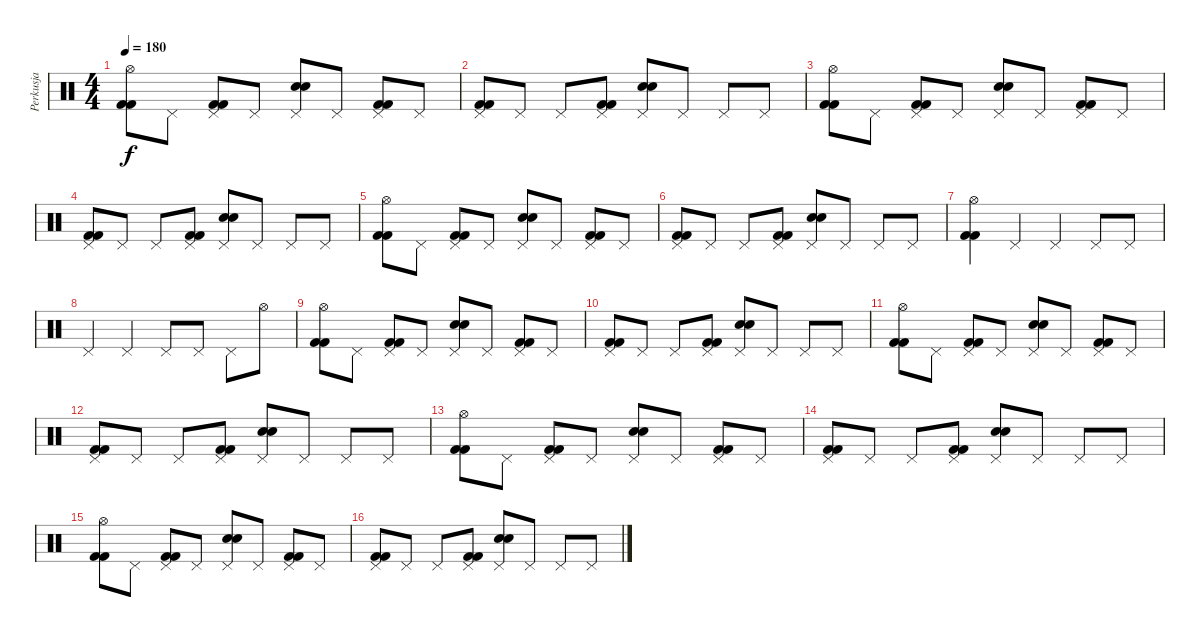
\track ("Perkusja" "Perkusja") {instrument percussion}
\staff {score}
\articulation defaults
\ts (4 4)
\tempo 180
\clef neutral
\ks c
("Hi-Hat (open)" "Kick (hit) 2" "Kick (hit) 2").8{dy f} "Pedal Hi-Hat (hit)".8 ("Pedal Hi-Hat (hit)" "Kick (hit) 2" "Kick (hit) 2").8 "Pedal Hi-Hat (hit)".8 ("Pedal Hi-Hat (hit)" "Snare (hit) 2" "Snare (hit) 2").8 "Pedal Hi-Hat (hit)".8 ("Pedal Hi-Hat (hit)" "Kick (hit) 2" "Kick (hit) 2").8 "Pedal Hi-Hat (hit)".8 |
("Pedal Hi-Hat (hit)" "Kick (hit) 2" "Kick (hit) 2").8 "Pedal Hi-Hat (hit)".8 "Pedal Hi-Hat (hit)".8 ("Pedal Hi-Hat (hit)" "Kick (hit) 2" "Kick (hit) 2").8 ("Pedal Hi-Hat (hit)" "Snare (hit) 2" "Snare (hit) 2").8 "Pedal Hi-Hat (hit)".8 "Pedal Hi-Hat (hit)".8 "Pedal Hi-Hat (hit)".8 |
("Hi-Hat (open)" "Kick (hit) 2" "Kick (hit) 2").8 "Pedal Hi-Hat (hit)".8 ("Pedal Hi-Hat (hit)" "Kick (hit) 2" "Kick (hit) 2").8 "Pedal Hi-Hat (hit)".8 ("Pedal Hi-Hat (hit)" "Snare (hit) 2" "Snare (hit) 2").8 "Pedal Hi-Hat (hit)".8 ("Pedal Hi-Hat (hit)" "Kick (hit) 2" "Kick (hit) 2").8 "Pedal Hi-Hat (hit)".8 |
("Pedal Hi-Hat (hit)" "Kick (hit) 2" "Kick (hit) 2").8 "Pedal Hi-Hat (hit)".8 "Pedal Hi-Hat (hit)".8 ("Pedal Hi-Hat (hit)" "Kick (hit) 2" "Kick (hit) 2").8 ("Pedal Hi-Hat (hit)" "Snare (hit) 2" "Snare (hit) 2").8 "Pedal Hi-Hat (hit)".8 "Pedal Hi-Hat (hit)".8 "Pedal Hi-Hat (hit)".8 |
("Hi-Hat (open)" "Kick (hit) 2" "Kick (hit) 2").8 "Pedal Hi-Hat (hit)".8 ("Pedal Hi-Hat (hit)" "Kick (hit) 2" "Kick (hit) 2").8 "Pedal Hi-Hat (hit)".8 ("Pedal Hi-Hat (hit)" "Snare (hit) 2" "Snare (hit) 2").8 "Pedal Hi-Hat (hit)".8 ("Pedal Hi-Hat (hit)" "Kick (hit) 2" "Kick (hit) 2").8 "Pedal Hi-Hat (hit)".8 |
("Pedal Hi-Hat (hit)" "Kick (hit) 2" "Kick (hit) 2").8 "Pedal Hi-Hat (hit)".8 "Pedal Hi-Hat (hit)".8 ("Pedal Hi-Hat (hit)" "Kick (hit) 2" "Kick (hit) 2").8 ("Pedal Hi-Hat (hit)" "Snare (hit) 2" "Snare (hit) 2").8 "Pedal Hi-Hat (hit)".8 "Pedal Hi-Hat (hit)".8 "Pedal Hi-Hat (hit)".8 |
("Hi-Hat (open)" "Kick (hit) 2" "Kick (hit) 2").4 "Pedal Hi-Hat (hit)".4 "Pedal Hi-Hat (hit)".4 "Pedal Hi-Hat (hit)".8 "Pedal Hi-Hat (hit)".8 |
"Pedal Hi-Hat (hit)".4 "Pedal Hi-Hat (hit)".4 "Pedal Hi-Hat (hit)".8 "Pedal Hi-Hat (hit)".8 "Pedal Hi-Hat (hit)".8 "Hi-Hat (open)".8 |
("Hi-Hat (open)" "Kick (hit) 2" "Kick (hit) 2").8 "Pedal Hi-Hat (hit)".8 ("Pedal Hi-Hat (hit)" "Kick (hit) 2" "Kick (hit) 2").8 "Pedal Hi-Hat (hit)".8 ("Pedal Hi-Hat (hit)" "Snare (hit) 2" "Snare (hit) 2").8 "Pedal Hi-Hat (hit)".8 ("Pedal Hi-Hat (hit)" "Kick (hit) 2" "Kick (hit) 2").8 "Pedal Hi-Hat (hit)".8 |
("Pedal Hi-Hat (hit)" "Kick (hit) 2" "Kick (hit) 2").8 "Pedal Hi-Hat (hit)".8 "Pedal Hi-Hat (hit)".8 ("Pedal Hi-Hat (hit)" "Kick (hit) 2" "Kick (hit) 2").8 ("Pedal Hi-Hat (hit)" "Snare (hit) 2" "Snare (hit) 2").8 "Pedal Hi-Hat (hit)".8 "Pedal Hi-Hat (hit)".8 "Pedal Hi-Hat (hit)".8 |
("Hi-Hat (open)" "Kick (hit) 2" "Kick (hit) 2").8 "Pedal Hi-Hat (hit)".8 ("Pedal Hi-Hat (hit)" "Kick (hit) 2" "Kick (hit) 2").8 "Pedal Hi-Hat (hit)".8 ("Pedal Hi-Hat (hit)" "Snare (hit) 2" "Snare (hit) 2").8 "Pedal Hi-Hat (hit)".8 ("Pedal Hi-Hat (hit)" "Kick (hit) 2" "Kick (hit) 2").8 "Pedal Hi-Hat (hit)".8 |
("Pedal Hi-Hat (hit)" "Kick (hit) 2" "Kick (hit) 2").8 "Pedal Hi-Hat (hit)".8 "Pedal Hi-Hat (hit)".8 ("Pedal Hi-Hat (hit)" "Kick (hit) 2" "Kick (hit) 2").8 ("Pedal Hi-Hat (hit)" "Snare (hit) 2" "Snare (hit) 2").8 "Pedal Hi-Hat (hit)".8 "Pedal Hi-Hat (hit)".8 "Pedal Hi-Hat (hit)".8 |
("Hi-Hat (open)" "Kick (hit) 2" "Kick (hit) 2").8 "Pedal Hi-Hat (hit)".8 ("Pedal Hi-Hat (hit)" "Kick (hit) 2" "Kick (hit) 2").8 "Pedal Hi-Hat (hit)".8 ("Pedal Hi-Hat (hit)" "Snare (hit) 2" "Snare (hit) 2").8 "Pedal Hi-Hat (hit)".8 ("Pedal Hi-Hat (hit)" "Kick (hit) 2" "Kick (hit) 2").8 "Pedal Hi-Hat (hit)".8 |
("Pedal Hi-Hat (hit)" "Kick (hit) 2" "Kick (hit) 2").8 "Pedal Hi-Hat (hit)".8 "Pedal Hi-Hat (hit)".8 ("Pedal Hi-Hat (hit)" "Kick (hit) 2" "Kick (hit) 2").8 ("Pedal Hi-Hat (hit)" "Snare (hit) 2" "Snare (hit) 2").8 "Pedal Hi-Hat (hit)".8 "Pedal Hi-Hat (hit)".8 "Pedal Hi-Hat (hit)".8 |
("Hi-Hat (open)" "Kick (hit) 2" "Kick (hit) 2").8 "Pedal Hi-Hat (hit)".8 ("Pedal Hi-Hat (hit)" "Kick (hit) 2" "Kick (hit) 2").8 "Pedal Hi-Hat (hit)".8 ("Pedal Hi-Hat (hit)" "Snare (hit) 2" "Snare (hit) 2").8 "Pedal Hi-Hat (hit)".8 ("Pedal Hi-Hat (hit)" "Kick (hit) 2" "Kick (hit) 2").8 "Pedal Hi-Hat (hit)".8 |
("Pedal Hi-Hat (hit)" "Kick (hit) 2" "Kick (hit) 2").8 "Pedal Hi-Hat (hit)".8 "Pedal Hi-Hat (hit)".8 ("Pedal Hi-Hat (hit)" "Kick (hit) 2" "Kick (hit) 2").8 ("Pedal Hi-Hat (hit)" "Snare (hit) 2" "Snare (hit) 2").8 "Pedal Hi-Hat (hit)".8 "Pedal Hi-Hat (hit)".8 "Pedal Hi-Hat (hit)".8
